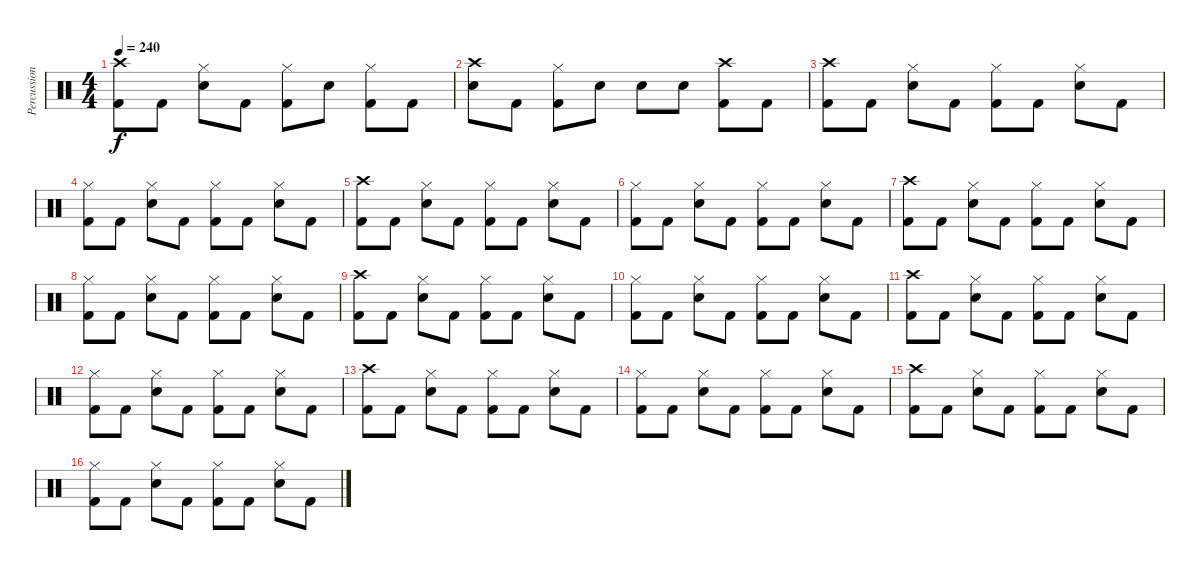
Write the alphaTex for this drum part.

\track ("Percussion" "Percussion") {instrument percussion}
\staff {score}
\articulation defaults
\ts (4 4)
\tempo 240
\clef neutral
\ks c
("Kick (hit) 2" "Crash high (hit)").8{dy f} "Kick (hit) 2".8 ("Snare (hit) 2" "Hi-Hat (closed)").8 "Kick (hit) 2".8 ("Kick (hit) 2" "Hi-Hat (closed)").8 "Snare (hit) 2".8 ("Kick (hit) 2" "Hi-Hat (closed)").8 "Kick (hit) 2".8 |
("Snare (hit) 2" "Crash high (hit)").8 "Kick (hit) 2".8 ("Kick (hit) 2" "Hi-Hat (closed)").8 "Snare (hit) 2".8 "Snare (hit) 2".8 "Snare (hit) 2".8 ("Kick (hit) 2" "Crash high (hit)").8 "Kick (hit) 2".8 |
("Kick (hit) 2" "Crash high (hit)").8 "Kick (hit) 2".8 ("Snare (hit) 2" "Hi-Hat (closed)").8 "Kick (hit) 2".8 ("Kick (hit) 2" "Hi-Hat (closed)").8 "Kick (hit) 2".8 ("Snare (hit) 2" "Hi-Hat (closed)").8 "Kick (hit) 2".8 |
("Kick (hit) 2" "Hi-Hat (closed)").8 "Kick (hit) 2".8 ("Snare (hit) 2" "Hi-Hat (closed)").8 "Kick (hit) 2".8 ("Kick (hit) 2" "Hi-Hat (closed)").8 "Kick (hit) 2".8 ("Snare (hit) 2" "Hi-Hat (closed)").8 "Kick (hit) 2".8 |
("Kick (hit) 2" "Crash high (hit)").8 "Kick (hit) 2".8 ("Snare (hit) 2" "Hi-Hat (closed)").8 "Kick (hit) 2".8 ("Kick (hit) 2" "Hi-Hat (closed)").8 "Kick (hit) 2".8 ("Snare (hit) 2" "Hi-Hat (closed)").8 "Kick (hit) 2".8 |
("Kick (hit) 2" "Hi-Hat (closed)").8 "Kick (hit) 2".8 ("Snare (hit) 2" "Hi-Hat (closed)").8 "Kick (hit) 2".8 ("Kick (hit) 2" "Hi-Hat (closed)").8 "Kick (hit) 2".8 ("Snare (hit) 2" "Hi-Hat (closed)").8 "Kick (hit) 2".8 |
("Kick (hit) 2" "Crash high (hit)").8 "Kick (hit) 2".8 ("Snare (hit) 2" "Hi-Hat (closed)").8 "Kick (hit) 2".8 ("Kick (hit) 2" "Hi-Hat (closed)").8 "Kick (hit) 2".8 ("Snare (hit) 2" "Hi-Hat (closed)").8 "Kick (hit) 2".8 |
("Kick (hit) 2" "Hi-Hat (closed)").8 "Kick (hit) 2".8 ("Snare (hit) 2" "Hi-Hat (closed)").8 "Kick (hit) 2".8 ("Kick (hit) 2" "Hi-Hat (closed)").8 "Kick (hit) 2".8 ("Snare (hit) 2" "Hi-Hat (closed)").8 "Kick (hit) 2".8 |
("Kick (hit) 2" "Crash high (hit)").8 "Kick (hit) 2".8 ("Snare (hit) 2" "Hi-Hat (closed)").8 "Kick (hit) 2".8 ("Kick (hit) 2" "Hi-Hat (closed)").8 "Kick (hit) 2".8 ("Snare (hit) 2" "Hi-Hat (closed)").8 "Kick (hit) 2".8 |
("Kick (hit) 2" "Hi-Hat (closed)").8 "Kick (hit) 2".8 ("Snare (hit) 2" "Hi-Hat (closed)").8 "Kick (hit) 2".8 ("Kick (hit) 2" "Hi-Hat (closed)").8 "Kick (hit) 2".8 ("Snare (hit) 2" "Hi-Hat (closed)").8 "Kick (hit) 2".8 |
("Kick (hit) 2" "Crash high (hit)").8 "Kick (hit) 2".8 ("Snare (hit) 2" "Hi-Hat (closed)").8 "Kick (hit) 2".8 ("Kick (hit) 2" "Hi-Hat (closed)").8 "Kick (hit) 2".8 ("Snare (hit) 2" "Hi-Hat (closed)").8 "Kick (hit) 2".8 |
("Kick (hit) 2" "Hi-Hat (closed)").8 "Kick (hit) 2".8 ("Snare (hit) 2" "Hi-Hat (closed)").8 "Kick (hit) 2".8 ("Kick (hit) 2" "Hi-Hat (closed)").8 "Kick (hit) 2".8 ("Snare (hit) 2" "Hi-Hat (closed)").8 "Kick (hit) 2".8 |
("Kick (hit) 2" "Crash high (hit)").8 "Kick (hit) 2".8 ("Snare (hit) 2" "Hi-Hat (closed)").8 "Kick (hit) 2".8 ("Kick (hit) 2" "Hi-Hat (closed)").8 "Kick (hit) 2".8 ("Snare (hit) 2" "Hi-Hat (closed)").8 "Kick (hit) 2".8 |
("Kick (hit) 2" "Hi-Hat (closed)").8 "Kick (hit) 2".8 ("Snare (hit) 2" "Hi-Hat (closed)").8 "Kick (hit) 2".8 ("Kick (hit) 2" "Hi-Hat (closed)").8 "Kick (hit) 2".8 ("Snare (hit) 2" "Hi-Hat (closed)").8 "Kick (hit) 2".8 |
("Kick (hit) 2" "Crash high (hit)").8 "Kick (hit) 2".8 ("Snare (hit) 2" "Hi-Hat (closed)").8 "Kick (hit) 2".8 ("Kick (hit) 2" "Hi-Hat (closed)").8 "Kick (hit) 2".8 ("Snare (hit) 2" "Hi-Hat (closed)").8 "Kick (hit) 2".8 |
("Kick (hit) 2" "Hi-Hat (closed)").8 "Kick (hit) 2".8 ("Snare (hit) 2" "Hi-Hat (closed)").8 "Kick (hit) 2".8 ("Kick (hit) 2" "Hi-Hat (closed)").8 "Kick (hit) 2".8 ("Snare (hit) 2" "Hi-Hat (closed)").8 "Kick (hit) 2".8
